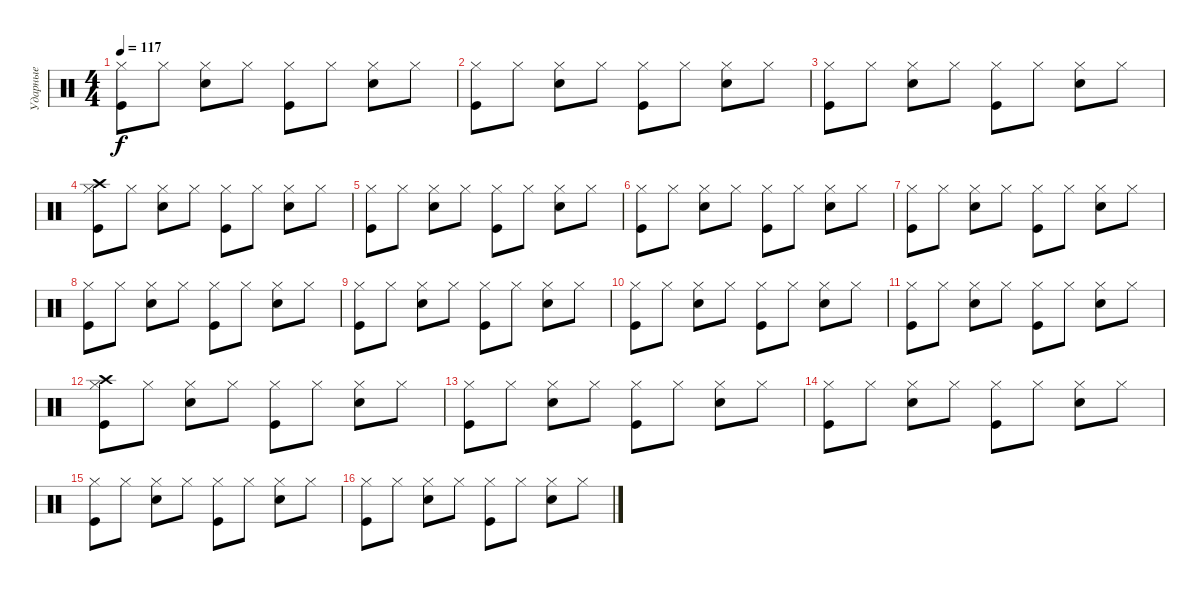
\track ("Ударные" "Ударные") {instrument percussion}
\staff {score}
\articulation defaults
\ts (4 4)
\tempo 117
\clef neutral
\ks c
("Kick (hit)" "Hi-Hat (closed)").8{dy f} "Hi-Hat (closed)".8 ("Hi-Hat (closed)" "Snare (hit) 2").8 "Hi-Hat (closed)".8 ("Kick (hit)" "Hi-Hat (closed)").8 "Hi-Hat (closed)".8 ("Hi-Hat (closed)" "Snare (hit) 2").8 "Hi-Hat (closed)".8 |
("Kick (hit)" "Hi-Hat (closed)").8 "Hi-Hat (closed)".8 ("Hi-Hat (closed)" "Snare (hit) 2").8 "Hi-Hat (closed)".8 ("Kick (hit)" "Hi-Hat (closed)").8 "Hi-Hat (closed)".8 ("Hi-Hat (closed)" "Snare (hit) 2").8 "Hi-Hat (closed)".8 |
("Kick (hit)" "Hi-Hat (closed)").8 "Hi-Hat (closed)".8 ("Hi-Hat (closed)" "Snare (hit) 2").8 "Hi-Hat (closed)".8 ("Kick (hit)" "Hi-Hat (closed)").8 "Hi-Hat (closed)".8 ("Hi-Hat (closed)" "Snare (hit) 2").8 "Hi-Hat (closed)".8 |
("Kick (hit)" "Hi-Hat (closed)" "Crash high (hit)").8 "Hi-Hat (closed)".8 ("Hi-Hat (closed)" "Snare (hit) 2").8 "Hi-Hat (closed)".8 ("Kick (hit)" "Hi-Hat (closed)").8 "Hi-Hat (closed)".8 ("Hi-Hat (closed)" "Snare (hit) 2").8 "Hi-Hat (closed)".8 |
("Kick (hit)" "Hi-Hat (closed)").8 "Hi-Hat (closed)".8 ("Hi-Hat (closed)" "Snare (hit) 2").8 "Hi-Hat (closed)".8 ("Kick (hit)" "Hi-Hat (closed)").8 "Hi-Hat (closed)".8 ("Hi-Hat (closed)" "Snare (hit) 2").8 "Hi-Hat (closed)".8 |
("Kick (hit)" "Hi-Hat (closed)").8 "Hi-Hat (closed)".8 ("Hi-Hat (closed)" "Snare (hit) 2").8 "Hi-Hat (closed)".8 ("Kick (hit)" "Hi-Hat (closed)").8 "Hi-Hat (closed)".8 ("Hi-Hat (closed)" "Snare (hit) 2").8 "Hi-Hat (closed)".8 |
("Kick (hit)" "Hi-Hat (closed)").8 "Hi-Hat (closed)".8 ("Hi-Hat (closed)" "Snare (hit) 2").8 "Hi-Hat (closed)".8 ("Kick (hit)" "Hi-Hat (closed)").8 "Hi-Hat (closed)".8 ("Hi-Hat (closed)" "Snare (hit) 2").8 "Hi-Hat (closed)".8 |
("Kick (hit)" "Hi-Hat (closed)").8 "Hi-Hat (closed)".8 ("Hi-Hat (closed)" "Snare (hit) 2").8 "Hi-Hat (closed)".8 ("Kick (hit)" "Hi-Hat (closed)").8 "Hi-Hat (closed)".8 ("Hi-Hat (closed)" "Snare (hit) 2").8 "Hi-Hat (closed)".8 |
("Kick (hit)" "Hi-Hat (closed)").8 "Hi-Hat (closed)".8 ("Hi-Hat (closed)" "Snare (hit) 2").8 "Hi-Hat (closed)".8 ("Kick (hit)" "Hi-Hat (closed)").8 "Hi-Hat (closed)".8 ("Hi-Hat (closed)" "Snare (hit) 2").8 "Hi-Hat (closed)".8 |
("Kick (hit)" "Hi-Hat (closed)").8 "Hi-Hat (closed)".8 ("Hi-Hat (closed)" "Snare (hit) 2").8 "Hi-Hat (closed)".8 ("Kick (hit)" "Hi-Hat (closed)").8 "Hi-Hat (closed)".8 ("Hi-Hat (closed)" "Snare (hit) 2").8 "Hi-Hat (closed)".8 |
("Kick (hit)" "Hi-Hat (closed)").8 "Hi-Hat (closed)".8 ("Hi-Hat (closed)" "Snare (hit) 2").8 "Hi-Hat (closed)".8 ("Kick (hit)" "Hi-Hat (closed)").8 "Hi-Hat (closed)".8 ("Hi-Hat (closed)" "Snare (hit) 2").8 "Hi-Hat (closed)".8 |
("Kick (hit)" "Hi-Hat (closed)" "Crash high (hit)").8 "Hi-Hat (closed)".8 ("Hi-Hat (closed)" "Snare (hit) 2").8 "Hi-Hat (closed)".8 ("Kick (hit)" "Hi-Hat (closed)").8 "Hi-Hat (closed)".8 ("Hi-Hat (closed)" "Snare (hit) 2").8 "Hi-Hat (closed)".8 |
("Kick (hit)" "Hi-Hat (closed)").8 "Hi-Hat (closed)".8 ("Hi-Hat (closed)" "Snare (hit) 2").8 "Hi-Hat (closed)".8 ("Kick (hit)" "Hi-Hat (closed)").8 "Hi-Hat (closed)".8 ("Hi-Hat (closed)" "Snare (hit) 2").8 "Hi-Hat (closed)".8 |
("Kick (hit)" "Hi-Hat (closed)").8 "Hi-Hat (closed)".8 ("Hi-Hat (closed)" "Snare (hit) 2").8 "Hi-Hat (closed)".8 ("Kick (hit)" "Hi-Hat (closed)").8 "Hi-Hat (closed)".8 ("Hi-Hat (closed)" "Snare (hit) 2").8 "Hi-Hat (closed)".8 |
("Kick (hit)" "Hi-Hat (closed)").8 "Hi-Hat (closed)".8 ("Hi-Hat (closed)" "Snare (hit) 2").8 "Hi-Hat (closed)".8 ("Kick (hit)" "Hi-Hat (closed)").8 "Hi-Hat (closed)".8 ("Hi-Hat (closed)" "Snare (hit) 2").8 "Hi-Hat (closed)".8 |
("Kick (hit)" "Hi-Hat (closed)").8 "Hi-Hat (closed)".8 ("Hi-Hat (closed)" "Snare (hit) 2").8 "Hi-Hat (closed)".8 ("Kick (hit)" "Hi-Hat (closed)").8 "Hi-Hat (closed)".8 ("Hi-Hat (closed)" "Snare (hit) 2").8 "Hi-Hat (closed)".8
